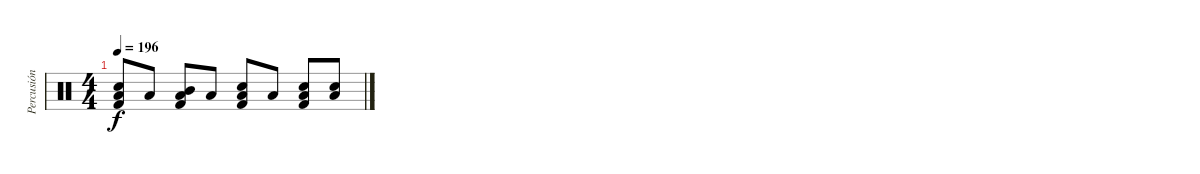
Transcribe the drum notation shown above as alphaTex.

\track ("Percusión" "Percusión") {instrument percussion}
\staff {score}
\articulation defaults
\ts (4 4)
\tempo 196
\clef neutral
\ks c
("Low Floor Tom (hit)" "Electric Snare (hit)" "Kick (hit) 2").8{dy f} "Low Floor Tom (hit)".8 ("Low Floor Tom (hit)" "Mid Tom (hit)" "Kick (hit) 2").8 "Low Floor Tom (hit)".8 ("Low Floor Tom (hit)" "Electric Snare (hit)" "Kick (hit) 2").8 "Low Floor Tom (hit)".8 ("Low Floor Tom (hit)" "Electric Snare (hit)" "Kick (hit) 2").8 ("Low Floor Tom (hit)" "Electric Snare (hit)").8
